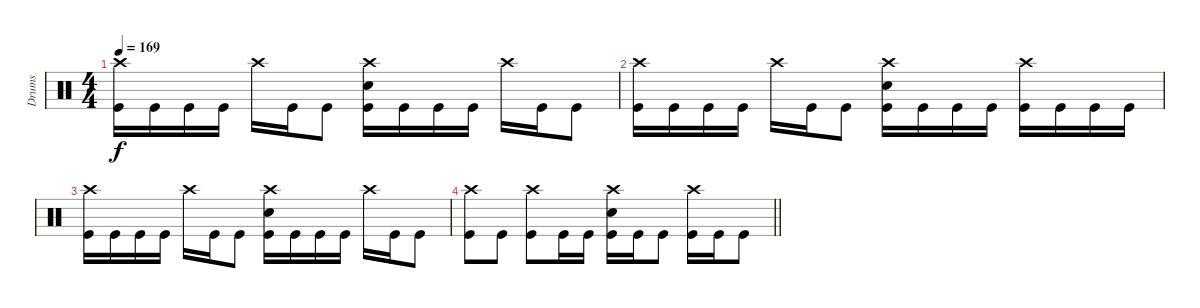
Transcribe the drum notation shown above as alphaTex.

\track ("Drums" "Drums") {instrument percussion}
\staff
\articulation defaults
\ts (4 4)
\tempo 169
\clef neutral
\ks c
("Crash high (hit)" "Kick (hit)").16{dy f} "Kick (hit)".16 "Kick (hit)".16 "Kick (hit)".16 "Crash high (hit)".16 "Kick (hit)".16 "Kick (hit)".8 ("Crash high (hit)" "Electric Snare (hit)" "Kick (hit)").16 "Kick (hit)".16 "Kick (hit)".16 "Kick (hit)".16 "Crash high (hit)".16 "Kick (hit)".16 "Kick (hit)".8 |
("Crash high (hit)" "Kick (hit)").16 "Kick (hit)".16 "Kick (hit)".16 "Kick (hit)".16 "Crash high (hit)".16 "Kick (hit)".16 "Kick (hit)".8 ("Crash high (hit)" "Electric Snare (hit)" "Kick (hit)").16 "Kick (hit)".16 "Kick (hit)".16 "Kick (hit)".16 ("Crash high (hit)" "Kick (hit)").16 "Kick (hit)".16 "Kick (hit)".16 "Kick (hit)".16 |
("Crash high (hit)" "Kick (hit)").16 "Kick (hit)".16 "Kick (hit)".16 "Kick (hit)".16 "Crash high (hit)".16 "Kick (hit)".16 "Kick (hit)".8 ("Crash high (hit)" "Electric Snare (hit)" "Kick (hit)").16 "Kick (hit)".16 "Kick (hit)".16 "Kick (hit)".16 "Crash high (hit)".16 "Kick (hit)".16 "Kick (hit)".8 |
\barLineRight lightlight
("Crash high (hit)" "Kick (hit)").8 "Kick (hit)".8 ("Crash high (hit)" "Kick (hit)").8 "Kick (hit)".16 "Kick (hit)".16 ("Crash high (hit)" "Electric Snare (hit)" "Kick (hit)").16 "Kick (hit)".16 "Kick (hit)".8 ("Crash high (hit)" "Kick (hit)").16 "Kick (hit)".16 "Kick (hit)".8
